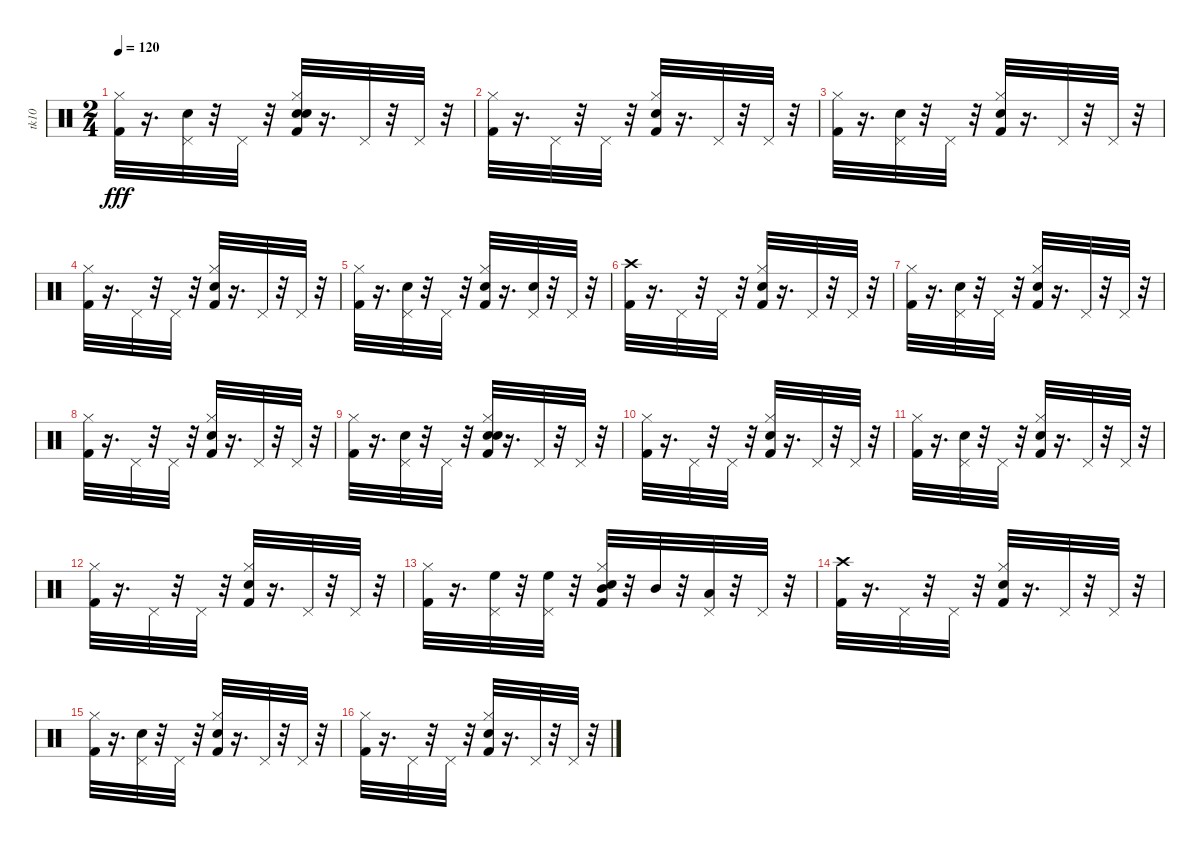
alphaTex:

\track ("tk10" "tk10") {instrument percussion}
\staff {score}
\articulation defaults
\ts (2 4)
\tempo 120
\clef neutral
\ks c
("Kick (hit) 2" "Hi-Hat (closed)").32{dy fff} r.16{d} ("Hand Clap (hit)" "Pedal Hi-Hat (hit)").32 r.32 "Pedal Hi-Hat (hit)".32 r.32 ("Snare (hit) 2" "Kick (hit) 2" "Hand Clap (hit)" "Hi-Hat (closed)").32 r.16{d} "Pedal Hi-Hat (hit)".32 r.32 "Pedal Hi-Hat (hit)".32 r.32 |
("Kick (hit) 2" "Hi-Hat (closed)").32 r.16{d} "Pedal Hi-Hat (hit)".32 r.32 "Pedal Hi-Hat (hit)".32 r.32 ("Kick (hit) 2" "Snare (hit) 2" "Hi-Hat (closed)").32 r.16{d} "Pedal Hi-Hat (hit)".32 r.32 "Pedal Hi-Hat (hit)".32 r.32 |
("Kick (hit) 2" "Hi-Hat (closed)").32 r.16{d} ("Hand Clap (hit)" "Pedal Hi-Hat (hit)").32 r.32 "Pedal Hi-Hat (hit)".32 r.32 ("Kick (hit) 2" "Snare (hit) 2" "Hi-Hat (closed)").32 r.16{d} "Pedal Hi-Hat (hit)".32 r.32 "Pedal Hi-Hat (hit)".32 r.32 |
("Kick (hit) 2" "Hi-Hat (closed)").32 r.16{d} "Pedal Hi-Hat (hit)".32 r.32 "Pedal Hi-Hat (hit)".32 r.32 ("Snare (hit) 2" "Kick (hit) 2" "Hi-Hat (closed)").32 r.16{d} "Pedal Hi-Hat (hit)".32 r.32 "Pedal Hi-Hat (hit)".32 r.32 |
("Kick (hit) 2" "Hi-Hat (closed)").32 r.16{d} ("Hand Clap (hit)" "Pedal Hi-Hat (hit)").32 r.32 "Pedal Hi-Hat (hit)".32 r.32 ("Snare (hit) 2" "Kick (hit) 2" "Hi-Hat (closed)").32 r.16{d} ("Hand Clap (hit)" "Pedal Hi-Hat (hit)").32 r.32 "Pedal Hi-Hat (hit)".32 r.32 |
("Kick (hit) 2" "Crash high (hit)").32 r.16{d} "Pedal Hi-Hat (hit)".32 r.32 "Pedal Hi-Hat (hit)".32 r.32 ("Snare (hit) 2" "Kick (hit) 2" "Hi-Hat (closed)").32 r.16{d} "Pedal Hi-Hat (hit)".32 r.32 "Pedal Hi-Hat (hit)".32 r.32 |
("Kick (hit) 2" "Hi-Hat (closed)").32 r.16{d} ("Pedal Hi-Hat (hit)" "Hand Clap (hit)").32 r.32 "Pedal Hi-Hat (hit)".32 r.32 ("Snare (hit) 2" "Kick (hit) 2" "Hi-Hat (closed)").32 r.16{d} "Pedal Hi-Hat (hit)".32 r.32 "Pedal Hi-Hat (hit)".32 r.32 |
("Kick (hit) 2" "Hi-Hat (closed)").32 r.16{d} "Pedal Hi-Hat (hit)".32 r.32 "Pedal Hi-Hat (hit)".32 r.32 ("Snare (hit) 2" "Kick (hit) 2" "Hi-Hat (closed)").32 r.16{d} "Pedal Hi-Hat (hit)".32 r.32 "Pedal Hi-Hat (hit)".32 r.32 |
("Kick (hit) 2" "Hi-Hat (closed)").32 r.16{d} ("Hand Clap (hit)" "Pedal Hi-Hat (hit)").32 r.32 "Pedal Hi-Hat (hit)".32 r.32 ("Snare (hit) 2" "Kick (hit) 2" "Hand Clap (hit)" "Hi-Hat (closed)").32 r.16{d} "Pedal Hi-Hat (hit)".32 r.32 "Pedal Hi-Hat (hit)".32 r.32 |
("Kick (hit) 2" "Hi-Hat (closed)").32 r.16{d} "Pedal Hi-Hat (hit)".32 r.32 "Pedal Hi-Hat (hit)".32 r.32 ("Kick (hit) 2" "Snare (hit) 2" "Hi-Hat (closed)").32 r.16{d} "Pedal Hi-Hat (hit)".32 r.32 "Pedal Hi-Hat (hit)".32 r.32 |
("Kick (hit) 2" "Hi-Hat (closed)").32 r.16{d} ("Hand Clap (hit)" "Pedal Hi-Hat (hit)").32 r.32 "Pedal Hi-Hat (hit)".32 r.32 ("Kick (hit) 2" "Snare (hit) 2" "Hi-Hat (closed)").32 r.16{d} "Pedal Hi-Hat (hit)".32 r.32 "Pedal Hi-Hat (hit)".32 r.32 |
("Kick (hit) 2" "Hi-Hat (closed)").32 r.16{d} "Pedal Hi-Hat (hit)".32 r.32 "Pedal Hi-Hat (hit)".32 r.32 ("Snare (hit) 2" "Kick (hit) 2" "Hi-Hat (closed)").32 r.16{d} "Pedal Hi-Hat (hit)".32 r.32 "Pedal Hi-Hat (hit)".32 r.32 |
("Kick (hit) 2" "Hi-Hat (closed)").32 r.16{d} ("High Floor Tom (hit)" "Pedal Hi-Hat (hit)").32 r.32 ("High Floor Tom (hit)" "Pedal Hi-Hat (hit)").32 r.32 ("Snare (hit) 2" "Kick (hit) 2" "Mid Tom (hit)" "Hi-Hat (closed)").32 r.32 "Mid Tom (hit)".32 r.32 ("Low Tom (hit)" "Pedal Hi-Hat (hit)").32 r.32 "Pedal Hi-Hat (hit)".32 r.32 |
("Kick (hit) 2" "Crash high (hit)").32 r.16{d} "Pedal Hi-Hat (hit)".32 r.32 "Pedal Hi-Hat (hit)".32 r.32 ("Snare (hit) 2" "Kick (hit) 2" "Hi-Hat (closed)").32 r.16{d} "Pedal Hi-Hat (hit)".32 r.32 "Pedal Hi-Hat (hit)".32 r.32 |
("Kick (hit) 2" "Hi-Hat (closed)").32 r.16{d} ("Pedal Hi-Hat (hit)" "Hand Clap (hit)").32 r.32 "Pedal Hi-Hat (hit)".32 r.32 ("Snare (hit) 2" "Kick (hit) 2" "Hi-Hat (closed)").32 r.16{d} "Pedal Hi-Hat (hit)".32 r.32 "Pedal Hi-Hat (hit)".32 r.32 |
("Kick (hit) 2" "Hi-Hat (closed)").32 r.16{d} "Pedal Hi-Hat (hit)".32 r.32 "Pedal Hi-Hat (hit)".32 r.32 ("Snare (hit) 2" "Kick (hit) 2" "Hi-Hat (closed)").32 r.16{d} "Pedal Hi-Hat (hit)".32 r.32 "Pedal Hi-Hat (hit)".32 r.32
